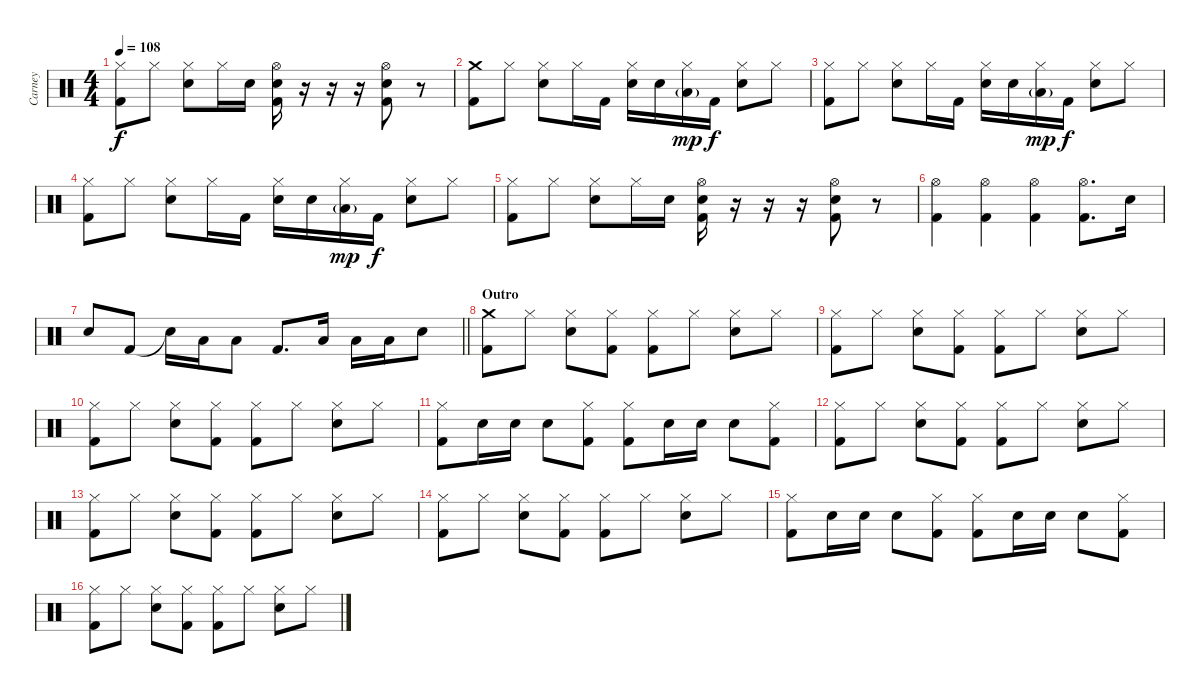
\track ("Carney" "Carney") {instrument percussion}
\staff {score}
\articulation defaults
\ts (4 4)
\tempo 108
\clef neutral
\ks c
("Hi-Hat (closed)" "Kick (hit) 2").8{dy f} "Hi-Hat (closed)".8 ("Hi-Hat (closed)" "Snare (hit) 2").8 "Hi-Hat (closed)".16 "Snare (hit) 2".16 ("Hi-Hat (open)" "Snare (hit) 2" "Kick (hit) 2").16 r.16 r.16 r.16 ("Hi-Hat (open)" "Snare (hit) 2" "Kick (hit) 2").8 r.8 |
("Crash medium (hit)" "Kick (hit) 2").8 "Hi-Hat (closed)".8 ("Hi-Hat (closed)" "Snare (hit) 2").8 "Hi-Hat (closed)".16 "Kick (hit) 2".16 ("Hi-Hat (closed)" "Snare (hit) 2").16 "Snare (hit) 2".16 ("Hi-Hat (closed)" "Low Floor Tom (hit)"{g}).16{dy mp} "Kick (hit) 2".16{dy f} ("Hi-Hat (closed)" "Snare (hit) 2").8 "Hi-Hat (closed)".8 |
("Hi-Hat (closed)" "Kick (hit) 2").8 "Hi-Hat (closed)".8 ("Hi-Hat (closed)" "Snare (hit) 2").8 "Hi-Hat (closed)".16 "Kick (hit) 2".16 ("Hi-Hat (closed)" "Snare (hit) 2").16 "Snare (hit) 2".16 ("Hi-Hat (closed)" "Low Floor Tom (hit)"{g}).16{dy mp} "Kick (hit) 2".16{dy f} ("Hi-Hat (closed)" "Snare (hit) 2").8 "Hi-Hat (closed)".8 |
("Hi-Hat (closed)" "Kick (hit) 2").8 "Hi-Hat (closed)".8 ("Hi-Hat (closed)" "Snare (hit) 2").8 "Hi-Hat (closed)".16 "Kick (hit) 2".16 ("Hi-Hat (closed)" "Snare (hit) 2").16 "Snare (hit) 2".16 ("Hi-Hat (closed)" "Low Floor Tom (hit)"{g}).16{dy mp} "Kick (hit) 2".16{dy f} ("Hi-Hat (closed)" "Snare (hit) 2").8 "Hi-Hat (closed)".8 |
("Hi-Hat (closed)" "Kick (hit) 2").8 "Hi-Hat (closed)".8 ("Hi-Hat (closed)" "Snare (hit) 2").8 "Hi-Hat (closed)".16 "Snare (hit) 2".16 ("Hi-Hat (open)" "Snare (hit) 2" "Kick (hit) 2").16 r.16 r.16 r.16 ("Hi-Hat (open)" "Snare (hit) 2" "Kick (hit) 2").8 r.8 |
("Hi-Hat (open)" "Kick (hit) 2").4 ("Hi-Hat (open)" "Kick (hit) 2").4 ("Hi-Hat (open)" "Kick (hit) 2").4 ("Hi-Hat (open)" "Kick (hit) 2").8{d} "Snare (hit) 2".16 |
\barLineRight lightlight "Snare (hit) 2".8 "Kick (hit) 2".8 "Snare (hit)"{t}.16 "Low Floor Tom (hit)".16 "Low Floor Tom (hit)".8 "Kick (hit) 2".8{d} "Low Floor Tom (hit)".16 "Low Floor Tom (hit)".16 "Low Floor Tom (hit)".16 "Snare (hit) 2".8
|
\section ("" "Outro")
("Crash medium (hit)" "Kick (hit) 2").8 "Hi-Hat (closed)".8 ("Hi-Hat (closed)" "Snare (hit) 2").8 ("Hi-Hat (closed)" "Kick (hit) 2").8 ("Hi-Hat (closed)" "Kick (hit) 2").8 "Hi-Hat (closed)".8 ("Hi-Hat (closed)" "Snare (hit) 2").8 "Hi-Hat (closed)".8 |
("Hi-Hat (closed)" "Kick (hit) 2").8 "Hi-Hat (closed)".8 ("Hi-Hat (closed)" "Snare (hit) 2").8 ("Hi-Hat (closed)" "Kick (hit) 2").8 ("Hi-Hat (closed)" "Kick (hit) 2").8 "Hi-Hat (closed)".8 ("Hi-Hat (closed)" "Snare (hit) 2").8 "Hi-Hat (closed)".8 |
("Hi-Hat (closed)" "Kick (hit) 2").8 "Hi-Hat (closed)".8 ("Hi-Hat (closed)" "Snare (hit) 2").8 ("Hi-Hat (closed)" "Kick (hit) 2").8 ("Hi-Hat (closed)" "Kick (hit) 2").8 "Hi-Hat (closed)".8 ("Hi-Hat (closed)" "Snare (hit) 2").8 "Hi-Hat (closed)".8 |
("Hi-Hat (closed)" "Kick (hit) 2").8 "Snare (hit) 2".16 "Snare (hit) 2".16 "Snare (hit) 2".8 ("Hi-Hat (closed)" "Kick (hit) 2").8 ("Hi-Hat (closed)" "Kick (hit) 2").8 "Snare (hit) 2".16 "Snare (hit) 2".16 "Snare (hit) 2".8 ("Hi-Hat (closed)" "Kick (hit) 2").8 |
("Hi-Hat (closed)" "Kick (hit) 2").8 "Hi-Hat (closed)".8 ("Hi-Hat (closed)" "Snare (hit) 2").8 ("Hi-Hat (closed)" "Kick (hit) 2").8 ("Hi-Hat (closed)" "Kick (hit) 2").8 "Hi-Hat (closed)".8 ("Hi-Hat (closed)" "Snare (hit) 2").8 "Hi-Hat (closed)".8 |
("Hi-Hat (closed)" "Kick (hit) 2").8 "Hi-Hat (closed)".8 ("Hi-Hat (closed)" "Snare (hit) 2").8 ("Hi-Hat (closed)" "Kick (hit) 2").8 ("Hi-Hat (closed)" "Kick (hit) 2").8 "Hi-Hat (closed)".8 ("Hi-Hat (closed)" "Snare (hit) 2").8 "Hi-Hat (closed)".8 |
("Hi-Hat (closed)" "Kick (hit) 2").8 "Hi-Hat (closed)".8 ("Hi-Hat (closed)" "Snare (hit) 2").8 ("Hi-Hat (closed)" "Kick (hit) 2").8 ("Hi-Hat (closed)" "Kick (hit) 2").8 "Hi-Hat (closed)".8 ("Hi-Hat (closed)" "Snare (hit) 2").8 "Hi-Hat (closed)".8 |
("Hi-Hat (closed)" "Kick (hit) 2").8 "Snare (hit) 2".16 "Snare (hit) 2".16 "Snare (hit) 2".8 ("Hi-Hat (closed)" "Kick (hit) 2").8 ("Hi-Hat (closed)" "Kick (hit) 2").8 "Snare (hit) 2".16 "Snare (hit) 2".16 "Snare (hit) 2".8 ("Hi-Hat (closed)" "Kick (hit) 2").8 |
("Hi-Hat (closed)" "Kick (hit) 2").8 "Hi-Hat (closed)".8 ("Hi-Hat (closed)" "Snare (hit) 2").8 ("Hi-Hat (closed)" "Kick (hit) 2").8 ("Hi-Hat (closed)" "Kick (hit) 2").8 "Hi-Hat (closed)".8 ("Hi-Hat (closed)" "Snare (hit) 2").8 "Hi-Hat (closed)".8
